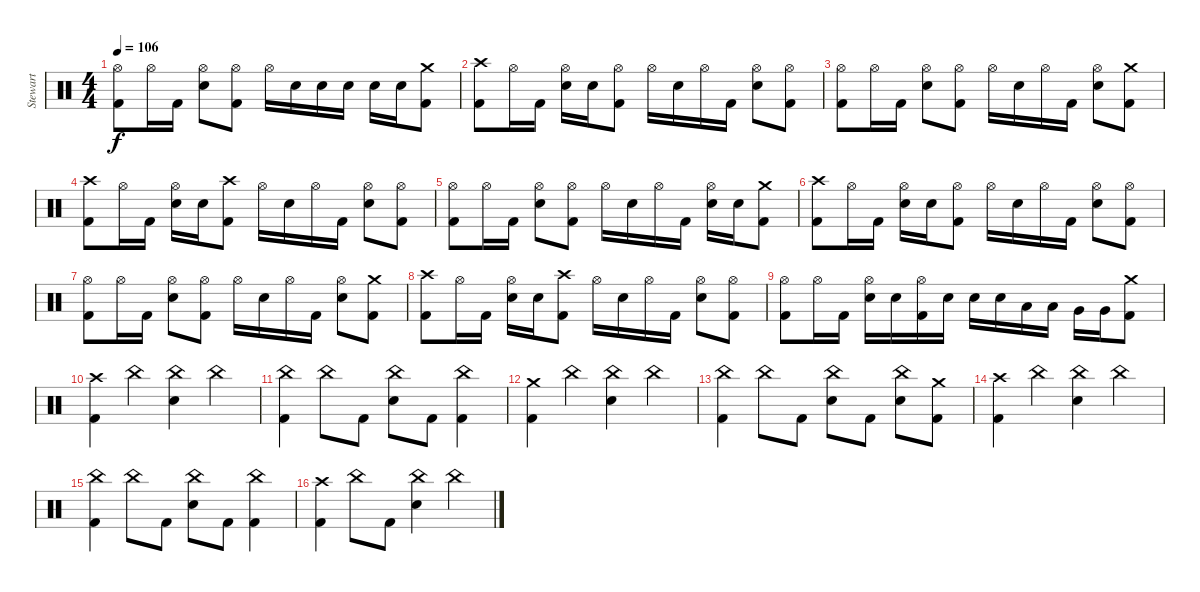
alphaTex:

\track ("Stewart" "Stewart") {instrument percussion}
\staff {score}
\articulation defaults
\ts (4 4)
\tempo 106
\clef neutral
\ks c
("Hi-Hat (open)" "Kick (hit) 2").8{dy f} "Hi-Hat (open)".16 "Kick (hit) 2".16 ("Hi-Hat (open)" "Electric Snare (hit)").8 ("Hi-Hat (open)" "Kick (hit) 2").8 "Hi-Hat (open)".16 "Electric Snare (hit)".16 "Electric Snare (hit)".16 "Electric Snare (hit)".16 "Electric Snare (hit)".16 "Electric Snare (hit)".16 ("Crash medium (hit)" "Kick (hit) 2").8 |
("Crash high (hit)" "Kick (hit) 2").8 "Hi-Hat (open)".16 "Kick (hit) 2".16 ("Hi-Hat (open)" "Electric Snare (hit)").16 "Electric Snare (hit)".16 ("Hi-Hat (open)" "Kick (hit) 2").8 "Hi-Hat (open)".16 "Electric Snare (hit)".16 "Hi-Hat (open)".16 "Kick (hit) 2".16 ("Hi-Hat (open)" "Electric Snare (hit)").8 ("Hi-Hat (open)" "Kick (hit) 2").8 |
("Hi-Hat (open)" "Kick (hit) 2").8 "Hi-Hat (open)".16 "Kick (hit) 2".16 ("Hi-Hat (open)" "Electric Snare (hit)").8 ("Hi-Hat (open)" "Kick (hit) 2").8 "Hi-Hat (open)".16 "Electric Snare (hit)".16 "Hi-Hat (open)".16 "Kick (hit) 2".16 ("Hi-Hat (open)" "Electric Snare (hit)").8 ("Crash medium (hit)" "Kick (hit) 2").8 |
("Crash high (hit)" "Kick (hit) 2").8 "Hi-Hat (open)".16 "Kick (hit) 2".16 ("Hi-Hat (open)" "Electric Snare (hit)").16 "Electric Snare (hit)".16 ("Crash high (hit)" "Kick (hit) 2").8 "Hi-Hat (open)".16 "Electric Snare (hit)".16 "Hi-Hat (open)".16 "Kick (hit) 2".16 ("Hi-Hat (open)" "Electric Snare (hit)").8 ("Hi-Hat (open)" "Kick (hit) 2").8 |
("Hi-Hat (open)" "Kick (hit) 2").8 "Hi-Hat (open)".16 "Kick (hit) 2".16 ("Hi-Hat (open)" "Electric Snare (hit)").8 ("Hi-Hat (open)" "Kick (hit) 2").8 "Hi-Hat (open)".16 "Electric Snare (hit)".16 "Hi-Hat (open)".16 "Kick (hit) 2".16 ("Hi-Hat (open)" "Electric Snare (hit)").16 "Electric Snare (hit)".16 ("Crash medium (hit)" "Kick (hit) 2").8 |
("Crash high (hit)" "Kick (hit) 2").8 "Hi-Hat (open)".16 "Kick (hit) 2".16 ("Hi-Hat (open)" "Electric Snare (hit)").16 "Electric Snare (hit)".16 ("Hi-Hat (open)" "Kick (hit) 2").8 "Hi-Hat (open)".16 "Electric Snare (hit)".16 "Hi-Hat (open)".16 "Kick (hit) 2".16 ("Hi-Hat (open)" "Electric Snare (hit)").8 ("Hi-Hat (open)" "Kick (hit) 2").8 |
("Hi-Hat (open)" "Kick (hit) 2").8 "Hi-Hat (open)".16 "Kick (hit) 2".16 ("Hi-Hat (open)" "Electric Snare (hit)").8 ("Hi-Hat (open)" "Kick (hit) 2").8 "Hi-Hat (open)".16 "Electric Snare (hit)".16 "Hi-Hat (open)".16 "Kick (hit) 2".16 ("Hi-Hat (open)" "Electric Snare (hit)").8 ("Crash medium (hit)" "Kick (hit) 2").8 |
("Crash high (hit)" "Kick (hit) 2").8 "Hi-Hat (open)".16 "Kick (hit) 2".16 ("Hi-Hat (open)" "Electric Snare (hit)").16 "Electric Snare (hit)".16 ("Crash high (hit)" "Kick (hit) 2").8 "Hi-Hat (open)".16 "Electric Snare (hit)".16 "Hi-Hat (open)".16 "Kick (hit) 2".16 ("Hi-Hat (open)" "Electric Snare (hit)").8 ("Hi-Hat (open)" "Kick (hit) 2").8 |
("Hi-Hat (open)" "Kick (hit) 2").8 "Hi-Hat (open)".16 "Kick (hit) 2".16 ("Hi-Hat (open)" "Electric Snare (hit)").16 "Electric Snare (hit)".16 ("Hi-Hat (open)" "Kick (hit) 2").16 "Electric Snare (hit)".16 "Electric Snare (hit)".16 "Electric Snare (hit)".16 "Low Tom (hit)".16 "Low Tom (hit)".16 "Very Low Tom (hit)".16 "Very Low Tom (hit)".16 ("Crash medium (hit)" "Kick (hit) 2").8 |
("Crash high (hit)" "Kick (hit) 2").4 "China (hit)".4 ("China (hit)" "Electric Snare (hit)").4 "China (hit)".4 |
("China (hit)" "Kick (hit) 2").4 "China (hit)".8 "Kick (hit) 2".8 ("China (hit)" "Electric Snare (hit)").8 "Kick (hit) 2".8 ("China (hit)" "Kick (hit) 2").4 |
("Crash medium (hit)" "Kick (hit) 2").4 "China (hit)".4 ("China (hit)" "Electric Snare (hit)").4 "China (hit)".4 |
("China (hit)" "Kick (hit) 2").4 "China (hit)".8 "Kick (hit) 2".8 ("China (hit)" "Electric Snare (hit)").8 "Kick (hit) 2".8 ("China (hit)" "Electric Snare (hit)").8 ("Crash medium (hit)" "Kick (hit) 2").8 |
("Crash high (hit)" "Kick (hit) 2").4 "China (hit)".4 ("China (hit)" "Electric Snare (hit)").4 "China (hit)".4 |
("China (hit)" "Kick (hit) 2").4 "China (hit)".8 "Kick (hit) 2".8 ("China (hit)" "Electric Snare (hit)").8 "Kick (hit) 2".8 ("China (hit)" "Kick (hit) 2").4 |
("Crash high (hit)" "Kick (hit) 2").4 "China (hit)".8 "Kick (hit) 2".8 ("China (hit)" "Electric Snare (hit)").4 "China (hit)".4
